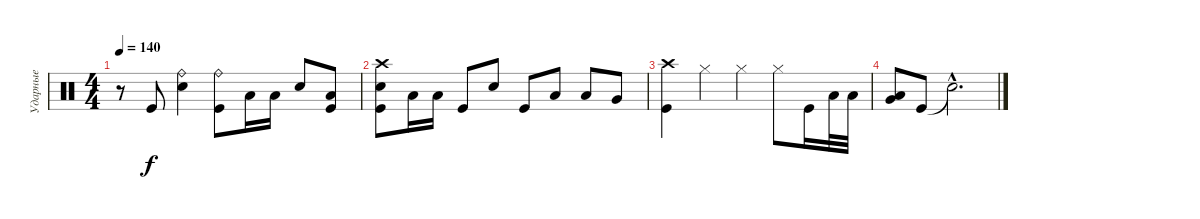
\track ("Ударные" "Ударные") {instrument percussion}
\staff {score}
\articulation defaults
\ts (4 4)
\tempo 140
\clef neutral
\ks c
r.8{dy f} "Kick (hit)".8 ("Ride (bell)" "Electric Snare (hit)").4 ("Ride (bell)" "Kick (hit)").8 "Low Tom (hit)".16 "Low Tom (hit)".16 "Electric Snare (hit)".8 ("Low Tom (hit)" "Kick (hit)").8 |
("Crash high (hit)" "Electric Snare (hit)" "Kick (hit)").8 "Low Tom (hit)".16 "Low Tom (hit)".16 "Kick (hit)".8 "Electric Snare (hit)".8 "Kick (hit)".8 "Low Tom (hit)".8 "Low Tom (hit)".8 "Very Low Tom (hit)".8 |
("Crash high (hit)" "Kick (hit)").4 "Hi-Hat (closed)".4 "Hi-Hat (closed)".4 "Hi-Hat (closed)".8 "Kick (hit)".16 "Low Tom (hit)".32 "Low Tom (hit)".32 |
("Very Low Tom (hit)" "Low Tom (hit)").8 "Kick (hit)".8 "Snare (hit)"{hac t}.2{d}
